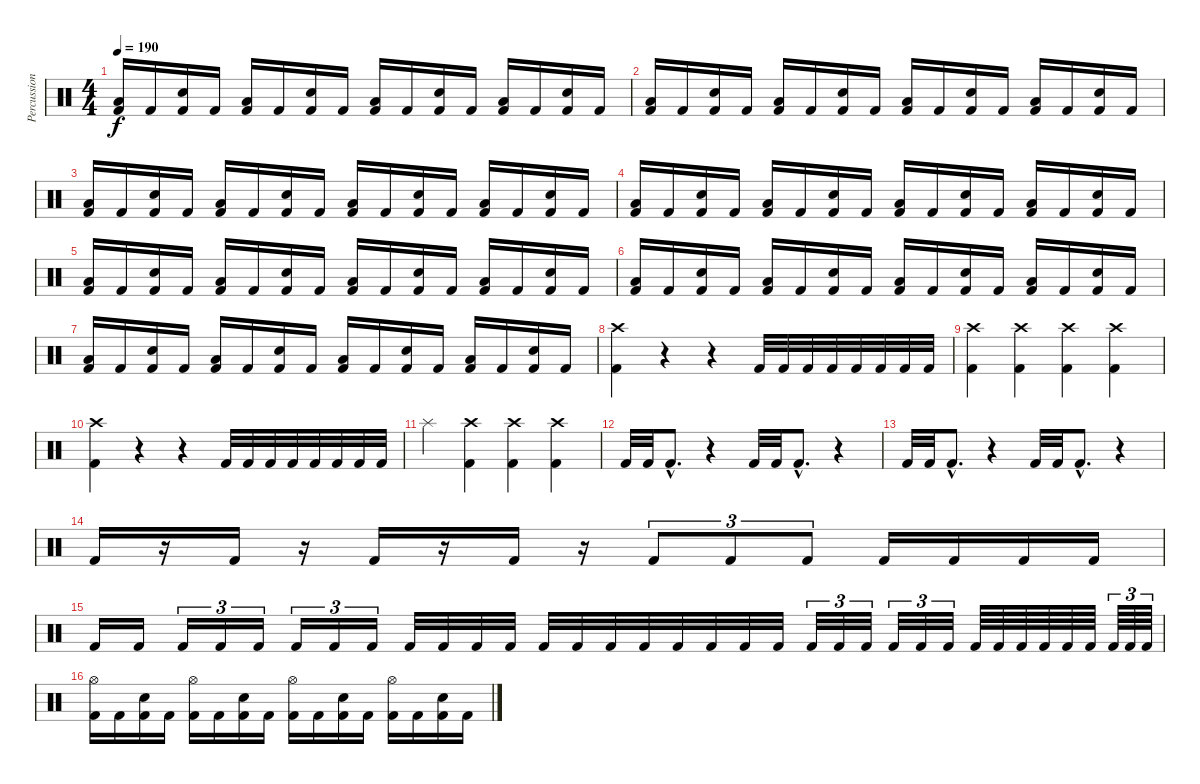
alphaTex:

\track ("Percussion" "Percussion") {instrument percussion}
\staff {score}
\articulation defaults
\ts (4 4)
\tempo 190
\clef neutral
\ks c
("Low Floor Tom (hit)" "Kick (hit) 2").16{dy f} "Kick (hit) 2".16 ("Snare (hit) 2" "Kick (hit) 2").16 "Kick (hit) 2".16 ("Low Floor Tom (hit)" "Kick (hit) 2").16 "Kick (hit) 2".16 ("Snare (hit) 2" "Kick (hit) 2").16 "Kick (hit) 2".16 ("Low Floor Tom (hit)" "Kick (hit) 2").16 "Kick (hit) 2".16 ("Snare (hit) 2" "Kick (hit) 2").16 "Kick (hit) 2".16 ("Low Floor Tom (hit)" "Kick (hit) 2").16 "Kick (hit) 2".16 ("Snare (hit) 2" "Kick (hit) 2").16 "Kick (hit) 2".16 |
("Low Floor Tom (hit)" "Kick (hit) 2").16 "Kick (hit) 2".16 ("Snare (hit) 2" "Kick (hit) 2").16 "Kick (hit) 2".16 ("Low Floor Tom (hit)" "Kick (hit) 2").16 "Kick (hit) 2".16 ("Snare (hit) 2" "Kick (hit) 2").16 "Kick (hit) 2".16 ("Low Floor Tom (hit)" "Kick (hit) 2").16 "Kick (hit) 2".16 ("Snare (hit) 2" "Kick (hit) 2").16 "Kick (hit) 2".16 ("Low Floor Tom (hit)" "Kick (hit) 2").16 "Kick (hit) 2".16 ("Snare (hit) 2" "Kick (hit) 2").16 "Kick (hit) 2".16 |
("Low Floor Tom (hit)" "Kick (hit) 2").16 "Kick (hit) 2".16 ("Snare (hit) 2" "Kick (hit) 2").16 "Kick (hit) 2".16 ("Low Floor Tom (hit)" "Kick (hit) 2").16 "Kick (hit) 2".16 ("Snare (hit) 2" "Kick (hit) 2").16 "Kick (hit) 2".16 ("Low Floor Tom (hit)" "Kick (hit) 2").16 "Kick (hit) 2".16 ("Snare (hit) 2" "Kick (hit) 2").16 "Kick (hit) 2".16 ("Low Floor Tom (hit)" "Kick (hit) 2").16 "Kick (hit) 2".16 ("Snare (hit) 2" "Kick (hit) 2").16 "Kick (hit) 2".16 |
("Low Floor Tom (hit)" "Kick (hit) 2").16 "Kick (hit) 2".16 ("Snare (hit) 2" "Kick (hit) 2").16 "Kick (hit) 2".16 ("Low Floor Tom (hit)" "Kick (hit) 2").16 "Kick (hit) 2".16 ("Snare (hit) 2" "Kick (hit) 2").16 "Kick (hit) 2".16 ("Low Floor Tom (hit)" "Kick (hit) 2").16 "Kick (hit) 2".16 ("Snare (hit) 2" "Kick (hit) 2").16 "Kick (hit) 2".16 ("Low Floor Tom (hit)" "Kick (hit) 2").16 "Kick (hit) 2".16 ("Snare (hit) 2" "Kick (hit) 2").16 "Kick (hit) 2".16 |
("Low Floor Tom (hit)" "Kick (hit) 2").16 "Kick (hit) 2".16 ("Snare (hit) 2" "Kick (hit) 2").16 "Kick (hit) 2".16 ("Low Floor Tom (hit)" "Kick (hit) 2").16 "Kick (hit) 2".16 ("Snare (hit) 2" "Kick (hit) 2").16 "Kick (hit) 2".16 ("Low Floor Tom (hit)" "Kick (hit) 2").16 "Kick (hit) 2".16 ("Snare (hit) 2" "Kick (hit) 2").16 "Kick (hit) 2".16 ("Low Floor Tom (hit)" "Kick (hit) 2").16 "Kick (hit) 2".16 ("Snare (hit) 2" "Kick (hit) 2").16 "Kick (hit) 2".16 |
("Low Floor Tom (hit)" "Kick (hit) 2").16 "Kick (hit) 2".16 ("Snare (hit) 2" "Kick (hit) 2").16 "Kick (hit) 2".16 ("Low Floor Tom (hit)" "Kick (hit) 2").16 "Kick (hit) 2".16 ("Snare (hit) 2" "Kick (hit) 2").16 "Kick (hit) 2".16 ("Low Floor Tom (hit)" "Kick (hit) 2").16 "Kick (hit) 2".16 ("Snare (hit) 2" "Kick (hit) 2").16 "Kick (hit) 2".16 ("Low Floor Tom (hit)" "Kick (hit) 2").16 "Kick (hit) 2".16 ("Snare (hit) 2" "Kick (hit) 2").16 "Kick (hit) 2".16 |
("Low Floor Tom (hit)" "Kick (hit) 2").16 "Kick (hit) 2".16 ("Snare (hit) 2" "Kick (hit) 2").16 "Kick (hit) 2".16 ("Low Floor Tom (hit)" "Kick (hit) 2").16 "Kick (hit) 2".16 ("Snare (hit) 2" "Kick (hit) 2").16 "Kick (hit) 2".16 ("Low Floor Tom (hit)" "Kick (hit) 2").16 "Kick (hit) 2".16 ("Snare (hit) 2" "Kick (hit) 2").16 "Kick (hit) 2".16 ("Low Floor Tom (hit)" "Kick (hit) 2").16 "Kick (hit) 2".16 ("Snare (hit) 2" "Kick (hit) 2").16 "Kick (hit) 2".16 |
("Crash high (hit)" "Kick (hit) 2").4 r.4 r.4 "Kick (hit) 2".32 "Kick (hit) 2".32 "Kick (hit) 2".32 "Kick (hit) 2".32 "Kick (hit) 2".32 "Kick (hit) 2".32 "Kick (hit) 2".32 "Kick (hit) 2".32 |
("Crash high (hit)" "Kick (hit) 2").4 ("Crash high (hit)" "Kick (hit) 2").4 ("Crash high (hit)" "Kick (hit) 2").4 ("Crash high (hit)" "Kick (hit) 2").4 |
("Crash high (hit)" "Kick (hit) 2").4 r.4 r.4 "Kick (hit) 2".32 "Kick (hit) 2".32 "Kick (hit) 2".32 "Kick (hit) 2".32 "Kick (hit) 2".32 "Kick (hit) 2".32 "Kick (hit) 2".32 "Kick (hit) 2".32 |
"Splash (hit)".4 ("Crash high (hit)" "Kick (hit) 2").4 ("Crash high (hit)" "Kick (hit) 2").4 ("Crash high (hit)" "Kick (hit) 2").4 |
"Kick (hit) 2".32 "Kick (hit) 2".32 "Kick (hit) 2"{hac}.8{d} r.4 "Kick (hit) 2".32 "Kick (hit) 2".32 "Kick (hit) 2"{hac}.8{d} r.4 |
"Kick (hit) 2".32 "Kick (hit) 2".32 "Kick (hit) 2"{hac}.8{d} r.4 "Kick (hit) 2".32 "Kick (hit) 2".32 "Kick (hit) 2"{hac}.8{d} r.4 |
"Kick (hit) 2".16 r.16 "Kick (hit) 2".16 r.16 "Kick (hit) 2".16 r.16 "Kick (hit) 2".16 r.16 "Kick (hit) 2".8{tu (3 2)} "Kick (hit) 2".8{tu (3 2)} "Kick (hit) 2".8{tu (3 2)} "Kick (hit) 2".16 "Kick (hit) 2".16 "Kick (hit) 2".16 "Kick (hit) 2".16 |
"Kick (hit) 2".16 "Kick (hit) 2".16 "Kick (hit) 2".16{tu (3 2)} "Kick (hit) 2".16{tu (3 2)} "Kick (hit) 2".16{tu (3 2)} "Kick (hit) 2".16{tu (3 2)} "Kick (hit) 2".16{tu (3 2)} "Kick (hit) 2".16{tu (3 2)} "Kick (hit) 2".32 "Kick (hit) 2".32 "Kick (hit) 2".32 "Kick (hit) 2".32 "Kick (hit) 2".32 "Kick (hit) 2".32 "Kick (hit) 2".32 "Kick (hit) 2".32 "Kick (hit) 2".32 "Kick (hit) 2".32 "Kick (hit) 2".32 "Kick (hit) 2".32 "Kick (hit) 2".32{tu (3 2)} "Kick (hit) 2".32{tu (3 2)} "Kick (hit) 2".32{tu (3 2)} "Kick (hit) 2".32{tu (3 2)} "Kick (hit) 2".32{tu (3 2)} "Kick (hit) 2".32{tu (3 2)} "Kick (hit) 2".64 "Kick (hit) 2".64 "Kick (hit) 2".64 "Kick (hit) 2".64 "Kick (hit) 2".64 "Kick (hit) 2".64 "Kick (hit) 2".64{tu (3 2)} "Kick (hit) 2".64{tu (3 2)} "Kick (hit) 2".64{tu (3 2)} |
("Hi-Hat (open)" "Kick (hit) 2").16 "Kick (hit) 2".16 ("Snare (hit) 2" "Kick (hit) 2").16 "Kick (hit) 2".16 ("Hi-Hat (open)" "Kick (hit) 2").16 "Kick (hit) 2".16 ("Snare (hit) 2" "Kick (hit) 2").16 "Kick (hit) 2".16 ("Hi-Hat (open)" "Kick (hit) 2").16 "Kick (hit) 2".16 ("Snare (hit) 2" "Kick (hit) 2").16 "Kick (hit) 2".16 ("Hi-Hat (open)" "Kick (hit) 2").16 "Kick (hit) 2".16 ("Snare (hit) 2" "Kick (hit) 2").16 "Kick (hit) 2".16
